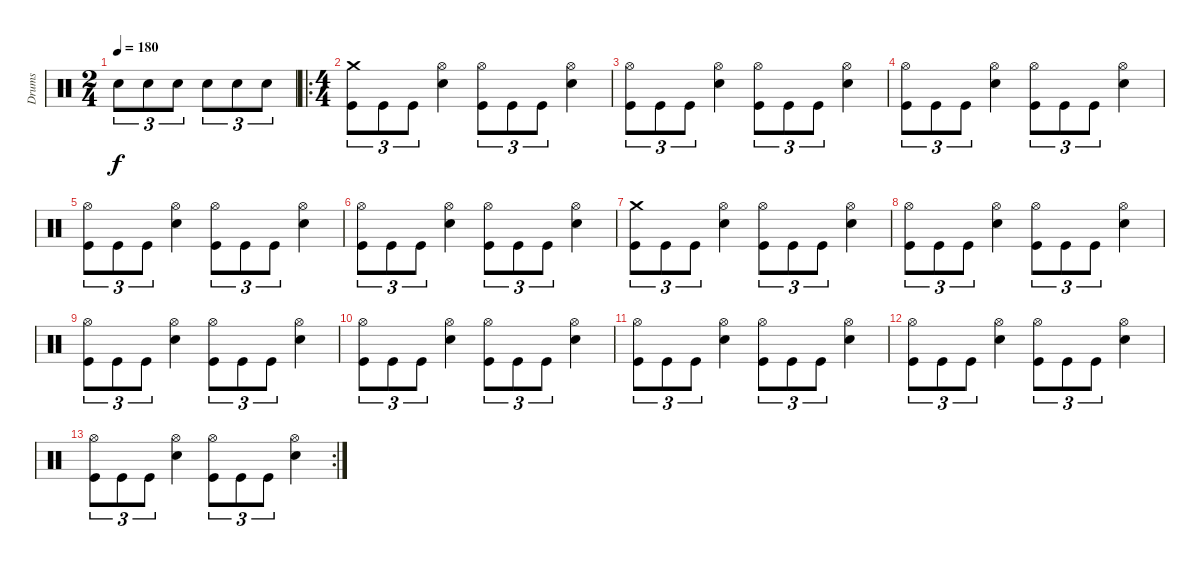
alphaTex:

\track ("Drums" "Drums") {instrument percussion}
\staff {score}
\articulation defaults
\ts (2 4)
\tempo 180
\clef neutral
\ks c "Snare (hit) 2".8{tu (3 2) dy f} "Snare (hit) 2".8{tu (3 2)} "Snare (hit) 2".8{tu (3 2)} "Snare (hit) 2".8{tu (3 2)} "Snare (hit) 2".8{tu (3 2)} "Snare (hit) 2".8{tu (3 2)}
|
\ro
\ts (4 4)
("Crash medium (hit)" "Kick (hit)").8{tu (3 2)} "Kick (hit)".8{tu (3 2)} "Kick (hit)".8{tu (3 2)} ("Hi-Hat (open)" "Snare (hit) 2").4 ("Hi-Hat (open)" "Kick (hit)").8{tu (3 2)} "Kick (hit)".8{tu (3 2)} "Kick (hit)".8{tu (3 2)} ("Hi-Hat (open)" "Snare (hit) 2").4 |
("Hi-Hat (open)" "Kick (hit)").8{tu (3 2)} "Kick (hit)".8{tu (3 2)} "Kick (hit)".8{tu (3 2)} ("Hi-Hat (open)" "Snare (hit) 2").4 ("Hi-Hat (open)" "Kick (hit)").8{tu (3 2)} "Kick (hit)".8{tu (3 2)} "Kick (hit)".8{tu (3 2)} ("Hi-Hat (open)" "Snare (hit) 2").4 |
("Hi-Hat (open)" "Kick (hit)").8{tu (3 2)} "Kick (hit)".8{tu (3 2)} "Kick (hit)".8{tu (3 2)} ("Hi-Hat (open)" "Snare (hit) 2").4 ("Hi-Hat (open)" "Kick (hit)").8{tu (3 2)} "Kick (hit)".8{tu (3 2)} "Kick (hit)".8{tu (3 2)} ("Hi-Hat (open)" "Snare (hit) 2").4 |
("Hi-Hat (open)" "Kick (hit)").8{tu (3 2)} "Kick (hit)".8{tu (3 2)} "Kick (hit)".8{tu (3 2)} ("Hi-Hat (open)" "Snare (hit) 2").4 ("Hi-Hat (open)" "Kick (hit)").8{tu (3 2)} "Kick (hit)".8{tu (3 2)} "Kick (hit)".8{tu (3 2)} ("Hi-Hat (open)" "Snare (hit) 2").4 |
("Hi-Hat (open)" "Kick (hit)").8{tu (3 2)} "Kick (hit)".8{tu (3 2)} "Kick (hit)".8{tu (3 2)} ("Hi-Hat (open)" "Snare (hit) 2").4 ("Hi-Hat (open)" "Kick (hit)").8{tu (3 2)} "Kick (hit)".8{tu (3 2)} "Kick (hit)".8{tu (3 2)} ("Hi-Hat (open)" "Snare (hit) 2").4 |
("Crash medium (hit)" "Kick (hit)").8{tu (3 2)} "Kick (hit)".8{tu (3 2)} "Kick (hit)".8{tu (3 2)} ("Hi-Hat (open)" "Snare (hit) 2").4 ("Hi-Hat (open)" "Kick (hit)").8{tu (3 2)} "Kick (hit)".8{tu (3 2)} "Kick (hit)".8{tu (3 2)} ("Hi-Hat (open)" "Snare (hit) 2").4 |
("Hi-Hat (open)" "Kick (hit)").8{tu (3 2)} "Kick (hit)".8{tu (3 2)} "Kick (hit)".8{tu (3 2)} ("Hi-Hat (open)" "Snare (hit) 2").4 ("Hi-Hat (open)" "Kick (hit)").8{tu (3 2)} "Kick (hit)".8{tu (3 2)} "Kick (hit)".8{tu (3 2)} ("Hi-Hat (open)" "Snare (hit) 2").4 |
("Hi-Hat (open)" "Kick (hit)").8{tu (3 2)} "Kick (hit)".8{tu (3 2)} "Kick (hit)".8{tu (3 2)} ("Hi-Hat (open)" "Snare (hit) 2").4 ("Hi-Hat (open)" "Kick (hit)").8{tu (3 2)} "Kick (hit)".8{tu (3 2)} "Kick (hit)".8{tu (3 2)} ("Hi-Hat (open)" "Snare (hit) 2").4 |
("Hi-Hat (open)" "Kick (hit)").8{tu (3 2)} "Kick (hit)".8{tu (3 2)} "Kick (hit)".8{tu (3 2)} ("Hi-Hat (open)" "Snare (hit) 2").4 ("Hi-Hat (open)" "Kick (hit)").8{tu (3 2)} "Kick (hit)".8{tu (3 2)} "Kick (hit)".8{tu (3 2)} ("Hi-Hat (open)" "Snare (hit) 2").4 |
("Hi-Hat (open)" "Kick (hit)").8{tu (3 2)} "Kick (hit)".8{tu (3 2)} "Kick (hit)".8{tu (3 2)} ("Hi-Hat (open)" "Snare (hit) 2").4 ("Hi-Hat (open)" "Kick (hit)").8{tu (3 2)} "Kick (hit)".8{tu (3 2)} "Kick (hit)".8{tu (3 2)} ("Hi-Hat (open)" "Snare (hit) 2").4 |
("Hi-Hat (open)" "Kick (hit)").8{tu (3 2)} "Kick (hit)".8{tu (3 2)} "Kick (hit)".8{tu (3 2)} ("Hi-Hat (open)" "Snare (hit) 2").4 ("Hi-Hat (open)" "Kick (hit)").8{tu (3 2)} "Kick (hit)".8{tu (3 2)} "Kick (hit)".8{tu (3 2)} ("Hi-Hat (open)" "Snare (hit) 2").4 |
\rc 2
("Hi-Hat (open)" "Kick (hit)").8{tu (3 2)} "Kick (hit)".8{tu (3 2)} "Kick (hit)".8{tu (3 2)} ("Hi-Hat (open)" "Snare (hit) 2").4 ("Hi-Hat (open)" "Kick (hit)").8{tu (3 2)} "Kick (hit)".8{tu (3 2)} "Kick (hit)".8{tu (3 2)} ("Hi-Hat (open)" "Snare (hit) 2").4
